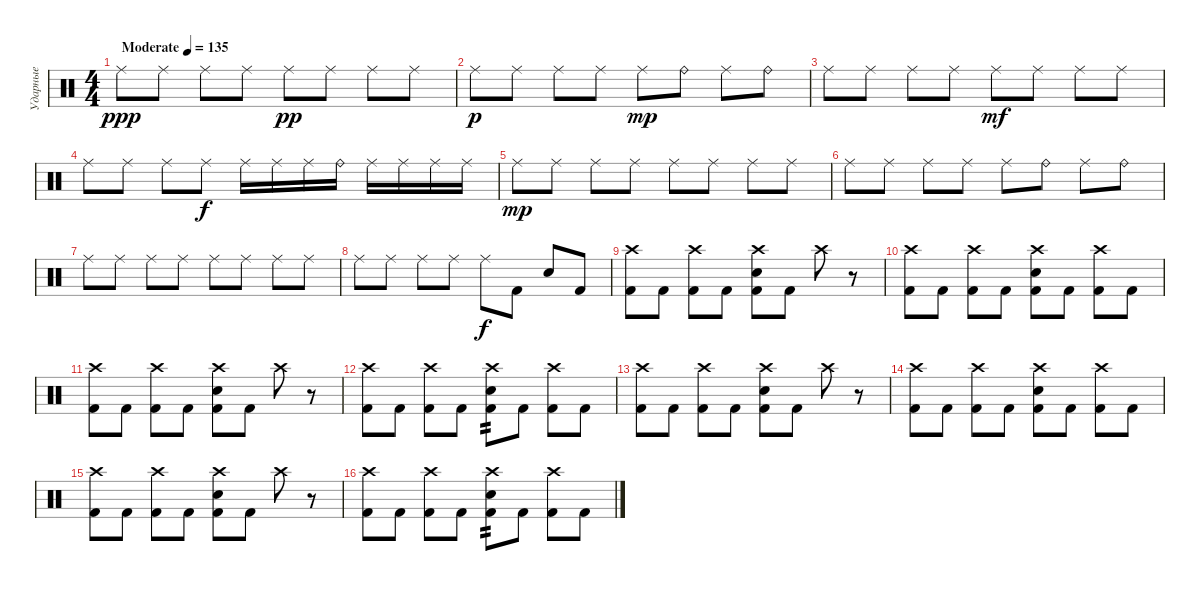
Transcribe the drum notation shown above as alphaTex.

\track ("Ударные" "Ударные") {instrument percussion}
\staff {score}
\articulation defaults
\ts (4 4)
\tempo (135 "Moderate")
\clef neutral
\ks c "Ride (middle)".8{dy ppp} "Ride (middle)".8 "Ride (middle)".8 "Ride (middle)".8 "Ride (middle)".8{dy pp} "Ride (middle)".8 "Ride (middle)".8 "Ride (middle)".8
|
"Ride (middle)".8{dy p} "Ride (middle)".8 "Ride (middle)".8 "Ride (middle)".8 "Ride (middle)".8{dy mp} "Ride (bell)".8 "Ride (middle)".8 "Ride (bell)".8 |
"Ride (middle)".8 "Ride (middle)".8 "Ride (middle)".8 "Ride (middle)".8 "Ride (middle)".8{dy mf} "Ride (middle)".8 "Ride (middle)".8 "Ride (middle)".8 |
"Ride (middle)".8 "Ride (middle)".8 "Ride (middle)".8 "Ride (middle)".8{dy f} "Ride (middle)".16 "Ride (middle)".16 "Ride (middle)".16 "Ride (bell)".16 "Ride (middle)".16 "Ride (middle)".16 "Ride (middle)".16 "Ride (middle)".16 |
"Ride (middle)".8{dy mp} "Ride (middle)".8 "Ride (middle)".8 "Ride (middle)".8 "Ride (middle)".8 "Ride (middle)".8 "Ride (middle)".8 "Ride (middle)".8 |
"Ride (middle)".8 "Ride (middle)".8 "Ride (middle)".8 "Ride (middle)".8 "Ride (middle)".8 "Ride (bell)".8 "Ride (middle)".8 "Ride (bell)".8 |
"Ride (middle)".8 "Ride (middle)".8 "Ride (middle)".8 "Ride (middle)".8 "Ride (middle)".8 "Ride (middle)".8 "Ride (middle)".8 "Ride (middle)".8 |
"Ride (middle)".8 "Ride (middle)".8 "Ride (middle)".8 "Ride (middle)".8 "Ride (middle)".8{dy f} "Kick (hit) 2".8 "Electric Snare (hit)".8 "Kick (hit) 2".8 |
("Crash high (hit)" "Kick (hit) 2").8 "Kick (hit) 2".8 ("Crash high (hit)" "Kick (hit) 2").8 "Kick (hit) 2".8 ("Crash high (hit)" "Electric Snare (hit)" "Kick (hit) 2").8 "Kick (hit) 2".8 "Crash high (hit)".8 r.8 |
("Crash high (hit)" "Kick (hit) 2").8 "Kick (hit) 2".8 ("Crash high (hit)" "Kick (hit) 2").8 "Kick (hit) 2".8 ("Crash high (hit)" "Electric Snare (hit)" "Kick (hit) 2").8 "Kick (hit) 2".8 ("Crash high (hit)" "Kick (hit) 2").8 "Kick (hit) 2".8 |
("Crash high (hit)" "Kick (hit) 2").8 "Kick (hit) 2".8 ("Crash high (hit)" "Kick (hit) 2").8 "Kick (hit) 2".8 ("Crash high (hit)" "Electric Snare (hit)" "Kick (hit) 2").8 "Kick (hit) 2".8 "Crash high (hit)".8 r.8 |
("Crash high (hit)" "Kick (hit) 2").8 "Kick (hit) 2".8 ("Crash high (hit)" "Kick (hit) 2").8 "Kick (hit) 2".8 ("Crash high (hit)" "Electric Snare (hit)" "Kick (hit) 2").8{tp 2} "Kick (hit) 2".8 ("Crash high (hit)" "Kick (hit) 2").8 "Kick (hit) 2".8 |
("Crash high (hit)" "Kick (hit) 2").8 "Kick (hit) 2".8 ("Crash high (hit)" "Kick (hit) 2").8 "Kick (hit) 2".8 ("Crash high (hit)" "Electric Snare (hit)" "Kick (hit) 2").8 "Kick (hit) 2".8 "Crash high (hit)".8 r.8 |
("Crash high (hit)" "Kick (hit) 2").8 "Kick (hit) 2".8 ("Crash high (hit)" "Kick (hit) 2").8 "Kick (hit) 2".8 ("Crash high (hit)" "Electric Snare (hit)" "Kick (hit) 2").8 "Kick (hit) 2".8 ("Crash high (hit)" "Kick (hit) 2").8 "Kick (hit) 2".8 |
("Crash high (hit)" "Kick (hit) 2").8 "Kick (hit) 2".8 ("Crash high (hit)" "Kick (hit) 2").8 "Kick (hit) 2".8 ("Crash high (hit)" "Electric Snare (hit)" "Kick (hit) 2").8 "Kick (hit) 2".8 "Crash high (hit)".8 r.8 |
("Crash high (hit)" "Kick (hit) 2").8 "Kick (hit) 2".8 ("Crash high (hit)" "Kick (hit) 2").8 "Kick (hit) 2".8 ("Crash high (hit)" "Electric Snare (hit)" "Kick (hit) 2").8{tp 2} "Kick (hit) 2".8 ("Crash high (hit)" "Kick (hit) 2").8 "Kick (hit) 2".8
